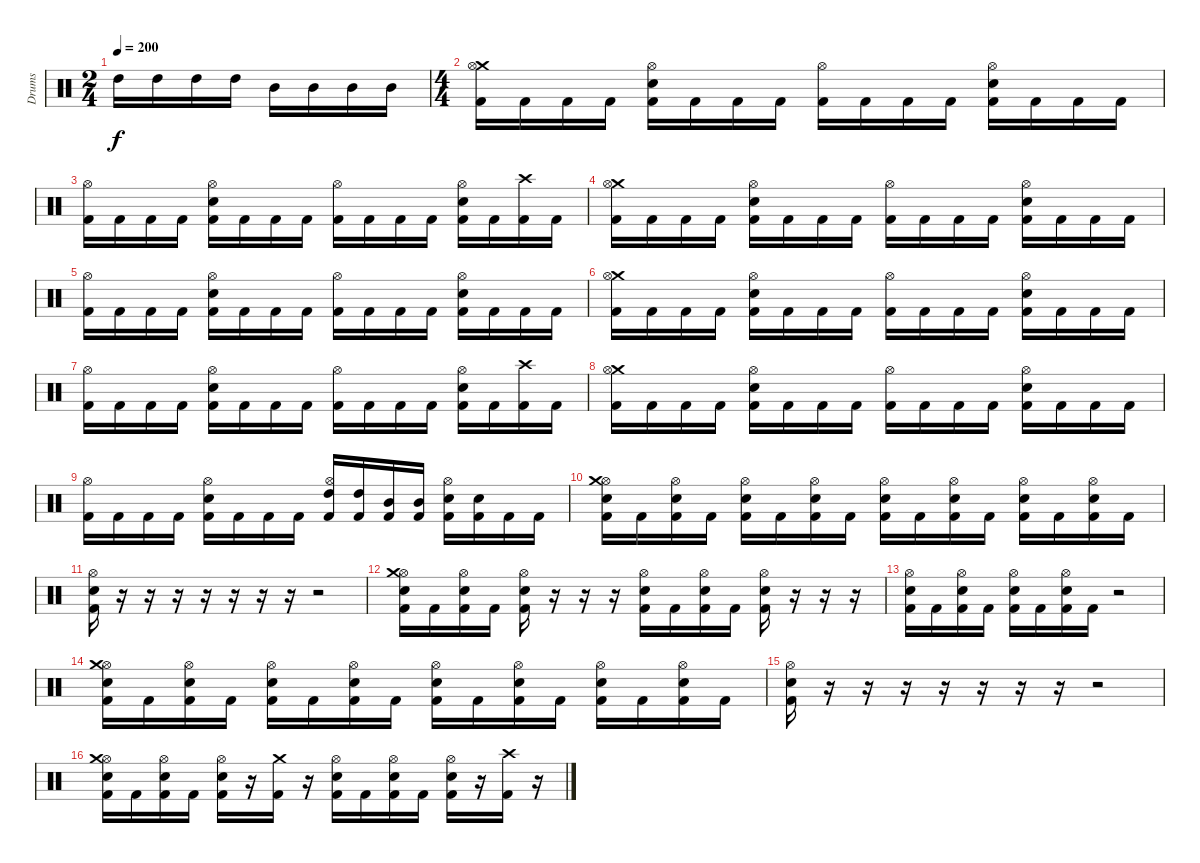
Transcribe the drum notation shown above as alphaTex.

\track ("Drums" "Drums") {instrument percussion}
\staff {score}
\articulation defaults
\ts (2 4)
\tempo 200
\clef neutral
\ks c "High Tom (hit)".16{dy f} "High Tom (hit)".16 "High Tom (hit)".16 "High Tom (hit)".16 "Mid Tom (hit)".16 "Mid Tom (hit)".16 "Mid Tom (hit)".16 "Mid Tom (hit)".16
|
\ts (4 4)
("Crash medium (hit)" "Hi-Hat (open)" "Kick (hit) 2").16 "Kick (hit) 2".16 "Kick (hit) 2".16 "Kick (hit) 2".16 ("Hi-Hat (open)" "Electric Snare (hit)" "Kick (hit) 2").16 "Kick (hit) 2".16 "Kick (hit) 2".16 "Kick (hit) 2".16 ("Hi-Hat (open)" "Kick (hit) 2").16 "Kick (hit) 2".16 "Kick (hit) 2".16 "Kick (hit) 2".16 ("Hi-Hat (open)" "Electric Snare (hit)" "Kick (hit) 2").16 "Kick (hit) 2".16 "Kick (hit) 2".16 "Kick (hit) 2".16 |
("Hi-Hat (open)" "Kick (hit) 2").16 "Kick (hit) 2".16 "Kick (hit) 2".16 "Kick (hit) 2".16 ("Hi-Hat (open)" "Electric Snare (hit)" "Kick (hit) 2").16 "Kick (hit) 2".16 "Kick (hit) 2".16 "Kick (hit) 2".16 ("Hi-Hat (open)" "Kick (hit) 2").16 "Kick (hit) 2".16 "Kick (hit) 2".16 "Kick (hit) 2".16 ("Hi-Hat (open)" "Electric Snare (hit)" "Kick (hit) 2").16 "Kick (hit) 2".16 ("Crash high (hit)" "Kick (hit) 2").16 "Kick (hit) 2".16 |
("Crash medium (hit)" "Hi-Hat (open)" "Kick (hit) 2").16 "Kick (hit) 2".16 "Kick (hit) 2".16 "Kick (hit) 2".16 ("Hi-Hat (open)" "Electric Snare (hit)" "Kick (hit) 2").16 "Kick (hit) 2".16 "Kick (hit) 2".16 "Kick (hit) 2".16 ("Hi-Hat (open)" "Kick (hit) 2").16 "Kick (hit) 2".16 "Kick (hit) 2".16 "Kick (hit) 2".16 ("Hi-Hat (open)" "Electric Snare (hit)" "Kick (hit) 2").16 "Kick (hit) 2".16 "Kick (hit) 2".16 "Kick (hit) 2".16 |
("Hi-Hat (open)" "Kick (hit) 2").16 "Kick (hit) 2".16 "Kick (hit) 2".16 "Kick (hit) 2".16 ("Hi-Hat (open)" "Electric Snare (hit)" "Kick (hit) 2").16 "Kick (hit) 2".16 "Kick (hit) 2".16 "Kick (hit) 2".16 ("Hi-Hat (open)" "Kick (hit) 2").16 "Kick (hit) 2".16 "Kick (hit) 2".16 "Kick (hit) 2".16 ("Hi-Hat (open)" "Electric Snare (hit)" "Kick (hit) 2").16 "Kick (hit) 2".16 "Kick (hit) 2".16 "Kick (hit) 2".16 |
("Crash medium (hit)" "Hi-Hat (open)" "Kick (hit) 2").16 "Kick (hit) 2".16 "Kick (hit) 2".16 "Kick (hit) 2".16 ("Hi-Hat (open)" "Electric Snare (hit)" "Kick (hit) 2").16 "Kick (hit) 2".16 "Kick (hit) 2".16 "Kick (hit) 2".16 ("Hi-Hat (open)" "Kick (hit) 2").16 "Kick (hit) 2".16 "Kick (hit) 2".16 "Kick (hit) 2".16 ("Hi-Hat (open)" "Electric Snare (hit)" "Kick (hit) 2").16 "Kick (hit) 2".16 "Kick (hit) 2".16 "Kick (hit) 2".16 |
("Hi-Hat (open)" "Kick (hit) 2").16 "Kick (hit) 2".16 "Kick (hit) 2".16 "Kick (hit) 2".16 ("Hi-Hat (open)" "Electric Snare (hit)" "Kick (hit) 2").16 "Kick (hit) 2".16 "Kick (hit) 2".16 "Kick (hit) 2".16 ("Hi-Hat (open)" "Kick (hit) 2").16 "Kick (hit) 2".16 "Kick (hit) 2".16 "Kick (hit) 2".16 ("Hi-Hat (open)" "Electric Snare (hit)" "Kick (hit) 2").16 "Kick (hit) 2".16 ("Crash high (hit)" "Kick (hit) 2").16 "Kick (hit) 2".16 |
("Crash medium (hit)" "Hi-Hat (open)" "Kick (hit) 2").16 "Kick (hit) 2".16 "Kick (hit) 2".16 "Kick (hit) 2".16 ("Hi-Hat (open)" "Electric Snare (hit)" "Kick (hit) 2").16 "Kick (hit) 2".16 "Kick (hit) 2".16 "Kick (hit) 2".16 ("Hi-Hat (open)" "Kick (hit) 2").16 "Kick (hit) 2".16 "Kick (hit) 2".16 "Kick (hit) 2".16 ("Hi-Hat (open)" "Electric Snare (hit)" "Kick (hit) 2").16 "Kick (hit) 2".16 "Kick (hit) 2".16 "Kick (hit) 2".16 |
("Hi-Hat (open)" "Kick (hit) 2").16 "Kick (hit) 2".16 "Kick (hit) 2".16 "Kick (hit) 2".16 ("Hi-Hat (open)" "Electric Snare (hit)" "Kick (hit) 2").16 "Kick (hit) 2".16 "Kick (hit) 2".16 "Kick (hit) 2".16 ("Hi-Hat (open)" "High Tom (hit)" "Kick (hit) 2").16 ("High Tom (hit)" "Kick (hit) 2").16 ("Mid Tom (hit)" "Kick (hit) 2").16 ("Mid Tom (hit)" "Kick (hit) 2").16 ("Hi-Hat (open)" "Electric Snare (hit)" "Kick (hit) 2").16 ("Electric Snare (hit)" "Kick (hit) 2").16 "Kick (hit) 2".16 "Kick (hit) 2".16 |
("Hi-Hat (open)" "Crash medium (hit)" "Electric Snare (hit)" "Kick (hit) 2").16 "Kick (hit) 2".16 ("Hi-Hat (open)" "Electric Snare (hit)" "Kick (hit) 2").16 "Kick (hit) 2".16 ("Hi-Hat (open)" "Electric Snare (hit)" "Kick (hit) 2").16 "Kick (hit) 2".16 ("Hi-Hat (open)" "Electric Snare (hit)" "Kick (hit) 2").16 "Kick (hit) 2".16 ("Hi-Hat (open)" "Electric Snare (hit)" "Kick (hit) 2").16 "Kick (hit) 2".16 ("Hi-Hat (open)" "Electric Snare (hit)" "Kick (hit) 2").16 "Kick (hit) 2".16 ("Hi-Hat (open)" "Electric Snare (hit)" "Kick (hit) 2").16 "Kick (hit) 2".16 ("Hi-Hat (open)" "Electric Snare (hit)" "Kick (hit) 2").16 "Kick (hit) 2".16 |
("Hi-Hat (open)" "Electric Snare (hit)" "Kick (hit) 2").16 r.16 r.16 r.16 r.16 r.16 r.16 r.16 r.2 |
("Hi-Hat (open)" "Crash medium (hit)" "Electric Snare (hit)" "Kick (hit) 2").16 "Kick (hit) 2".16 ("Hi-Hat (open)" "Electric Snare (hit)" "Kick (hit) 2").16 "Kick (hit) 2".16 ("Hi-Hat (open)" "Electric Snare (hit)" "Kick (hit) 2").16 r.16 r.16 r.16 ("Hi-Hat (open)" "Electric Snare (hit)" "Kick (hit) 2").16 "Kick (hit) 2".16 ("Hi-Hat (open)" "Electric Snare (hit)" "Kick (hit) 2").16 "Kick (hit) 2".16 ("Hi-Hat (open)" "Electric Snare (hit)" "Kick (hit) 2").16 r.16 r.16 r.16 |
("Hi-Hat (open)" "Electric Snare (hit)" "Kick (hit) 2").16 "Kick (hit) 2".16 ("Hi-Hat (open)" "Electric Snare (hit)" "Kick (hit) 2").16 "Kick (hit) 2".16 ("Hi-Hat (open)" "Electric Snare (hit)" "Kick (hit) 2").16 "Kick (hit) 2".16 ("Hi-Hat (open)" "Electric Snare (hit)" "Kick (hit) 2").16 "Kick (hit) 2".16 r.2 |
("Hi-Hat (open)" "Crash medium (hit)" "Electric Snare (hit)" "Kick (hit) 2").16 "Kick (hit) 2".16 ("Hi-Hat (open)" "Electric Snare (hit)" "Kick (hit) 2").16 "Kick (hit) 2".16 ("Hi-Hat (open)" "Electric Snare (hit)" "Kick (hit) 2").16 "Kick (hit) 2".16 ("Hi-Hat (open)" "Electric Snare (hit)" "Kick (hit) 2").16 "Kick (hit) 2".16 ("Hi-Hat (open)" "Electric Snare (hit)" "Kick (hit) 2").16 "Kick (hit) 2".16 ("Hi-Hat (open)" "Electric Snare (hit)" "Kick (hit) 2").16 "Kick (hit) 2".16 ("Hi-Hat (open)" "Electric Snare (hit)" "Kick (hit) 2").16 "Kick (hit) 2".16 ("Hi-Hat (open)" "Electric Snare (hit)" "Kick (hit) 2").16 "Kick (hit) 2".16 |
("Hi-Hat (open)" "Electric Snare (hit)" "Kick (hit) 2").16 r.16 r.16 r.16 r.16 r.16 r.16 r.16 r.2 |
("Hi-Hat (open)" "Crash medium (hit)" "Electric Snare (hit)" "Kick (hit) 2").16 "Kick (hit) 2".16 ("Hi-Hat (open)" "Electric Snare (hit)" "Kick (hit) 2").16 "Kick (hit) 2".16 ("Hi-Hat (open)" "Electric Snare (hit)" "Kick (hit) 2").16 r.16 ("Crash medium (hit)" "Kick (hit) 2").16 r.16 ("Hi-Hat (open)" "Electric Snare (hit)" "Kick (hit) 2").16 "Kick (hit) 2".16 ("Hi-Hat (open)" "Electric Snare (hit)" "Kick (hit) 2").16 "Kick (hit) 2".16 ("Hi-Hat (open)" "Electric Snare (hit)" "Kick (hit) 2").16 r.16 ("Crash high (hit)" "Kick (hit) 2").16 r.16
